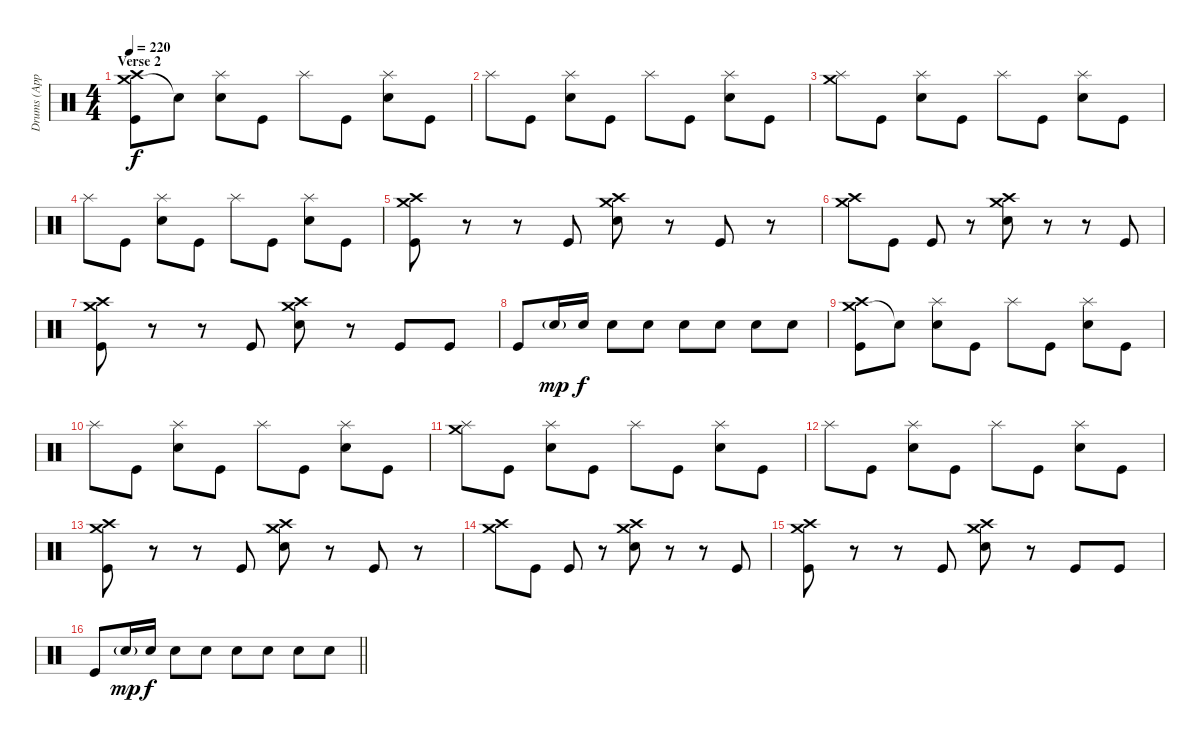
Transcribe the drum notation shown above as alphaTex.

\track ("Drums (Approx.)" "Drums (App") {instrument percussion}
\staff {score}
\articulation defaults
\ts (4 4)
\section ("" "Verse 2")
\tempo 220
\clef neutral
\ks c
("Crash medium (hit)" "Crash high (hit)" "Kick (hit)").8{dy f} "Snare (hit)"{t}.8 ("Splash (hit)" "Electric Snare (hit)").8 "Kick (hit)".8 "Splash (hit)".8 "Kick (hit)".8 ("Splash (hit)" "Electric Snare (hit)").8 "Kick (hit)".8 |
"Splash (hit)".8 "Kick (hit)".8 ("Splash (hit)" "Electric Snare (hit)").8 "Kick (hit)".8 "Splash (hit)".8 "Kick (hit)".8 ("Splash (hit)" "Electric Snare (hit)").8 "Kick (hit)".8 |
("Splash (hit)" "Crash medium (hit)").8 "Kick (hit)".8 ("Splash (hit)" "Electric Snare (hit)").8 "Kick (hit)".8 "Splash (hit)".8 "Kick (hit)".8 ("Splash (hit)" "Electric Snare (hit)").8 "Kick (hit)".8 |
"Splash (hit)".8 "Kick (hit)".8 ("Splash (hit)" "Electric Snare (hit)").8 "Kick (hit)".8 "Splash (hit)".8 "Kick (hit)".8 ("Splash (hit)" "Electric Snare (hit)").8 "Kick (hit)".8 |
("Crash medium (hit)" "Crash high (hit)" "Kick (hit)").8 r.8 r.8 "Kick (hit)".8 ("Crash medium (hit)" "Crash high (hit)" "Electric Snare (hit)").8 r.8 "Kick (hit)".8 r.8 |
("Crash medium (hit)" "Crash high (hit)").8 "Kick (hit)".8 "Kick (hit)".8 r.8 ("Crash medium (hit)" "Crash high (hit)" "Electric Snare (hit)").8 r.8 r.8 "Kick (hit)".8 |
("Crash medium (hit)" "Crash high (hit)" "Kick (hit)").8 r.8 r.8 "Kick (hit)".8 ("Crash medium (hit)" "Crash high (hit)" "Electric Snare (hit)").8 r.8 "Kick (hit)".8 "Kick (hit)".8 |
"Kick (hit)".8 "Electric Snare (hit)"{g}.16{dy mp} "Electric Snare (hit)".16{dy f} "Electric Snare (hit)".8 "Electric Snare (hit)".8 "Electric Snare (hit)".8 "Electric Snare (hit)".8 "Electric Snare (hit)".8 "Electric Snare (hit)".8 |
("Crash medium (hit)" "Crash high (hit)" "Kick (hit)").8 "Snare (hit)"{t}.8 ("Splash (hit)" "Electric Snare (hit)").8 "Kick (hit)".8 "Splash (hit)".8 "Kick (hit)".8 ("Splash (hit)" "Electric Snare (hit)").8 "Kick (hit)".8 |
"Splash (hit)".8 "Kick (hit)".8 ("Splash (hit)" "Electric Snare (hit)").8 "Kick (hit)".8 "Splash (hit)".8 "Kick (hit)".8 ("Splash (hit)" "Electric Snare (hit)").8 "Kick (hit)".8 |
("Splash (hit)" "Crash medium (hit)").8 "Kick (hit)".8 ("Splash (hit)" "Electric Snare (hit)").8 "Kick (hit)".8 "Splash (hit)".8 "Kick (hit)".8 ("Splash (hit)" "Electric Snare (hit)").8 "Kick (hit)".8 |
"Splash (hit)".8 "Kick (hit)".8 ("Splash (hit)" "Electric Snare (hit)").8 "Kick (hit)".8 "Splash (hit)".8 "Kick (hit)".8 ("Splash (hit)" "Electric Snare (hit)").8 "Kick (hit)".8 |
("Crash medium (hit)" "Crash high (hit)" "Kick (hit)").8 r.8 r.8 "Kick (hit)".8 ("Crash medium (hit)" "Crash high (hit)" "Electric Snare (hit)").8 r.8 "Kick (hit)".8 r.8 |
("Crash medium (hit)" "Crash high (hit)").8 "Kick (hit)".8 "Kick (hit)".8 r.8 ("Crash medium (hit)" "Crash high (hit)" "Electric Snare (hit)").8 r.8 r.8 "Kick (hit)".8 |
("Crash medium (hit)" "Crash high (hit)" "Kick (hit)").8 r.8 r.8 "Kick (hit)".8 ("Crash medium (hit)" "Crash high (hit)" "Electric Snare (hit)").8 r.8 "Kick (hit)".8 "Kick (hit)".8 |
\barLineRight lightlight "Kick (hit)".8 "Electric Snare (hit)"{g}.16{dy mp} "Electric Snare (hit)".16{dy f} "Electric Snare (hit)".8 "Electric Snare (hit)".8 "Electric Snare (hit)".8 "Electric Snare (hit)".8 "Electric Snare (hit)".8 "Electric Snare (hit)".8
